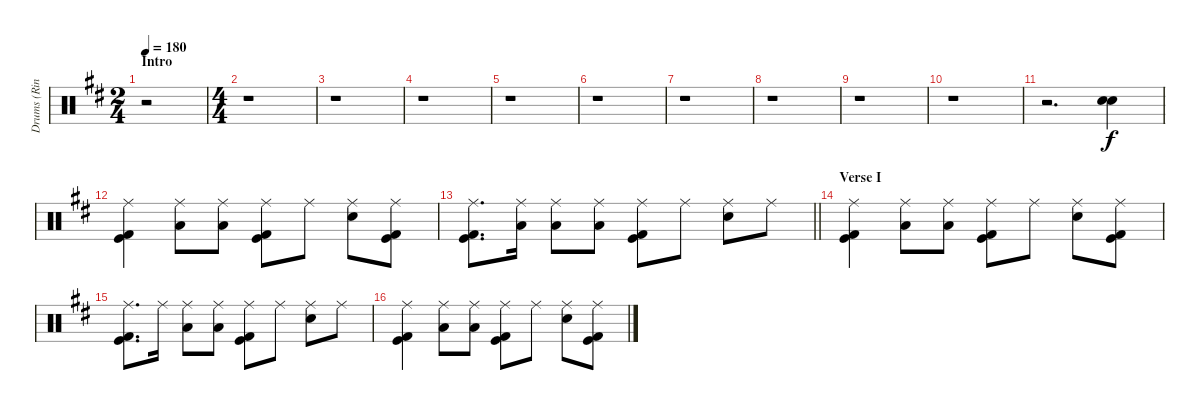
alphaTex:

\track ("Drums (Ringo)" "Drums (Rin") {instrument percussion}
\staff {score}
\articulation defaults
\ts (2 4)
\section ("" "Intro")
\tempo 180
\clef neutral
\ks d
r.2{dy f} |
\ts (4 4)
r.1 |
r.1 |
r.1 |
r.1 |
r.1 |
r.1 |
r.1 |
r.1 |
r.1 |
r.2{d} ("Electric Snare (hit)" "Snare (hit) 2").4 |
("Ride (middle)" "Kick (hit) 2" "Kick (hit)").4 ("Ride (middle)" "Low Tom (hit)").8 ("Ride (middle)" "Low Tom (hit)").8 ("Ride (middle)" "Kick (hit) 2" "Kick (hit)").8 "Ride (middle)".8 ("Ride (middle)" "Electric Snare (hit)").8 ("Ride (middle)" "Kick (hit) 2" "Kick (hit)").8 |
\barLineRight lightlight
("Ride (middle)" "Kick (hit) 2" "Kick (hit)").8{d} ("Ride (middle)" "Low Tom (hit)").16 ("Ride (middle)" "Low Tom (hit)").8 ("Ride (middle)" "Low Tom (hit)").8 ("Ride (middle)" "Kick (hit) 2" "Kick (hit)").8 "Ride (middle)".8 ("Ride (middle)" "Electric Snare (hit)").8 "Ride (middle)".8 |
\section ("" "Verse I")
("Ride (middle)" "Kick (hit) 2" "Kick (hit)").4 ("Ride (middle)" "Low Tom (hit)").8 ("Ride (middle)" "Low Tom (hit)").8 ("Ride (middle)" "Kick (hit) 2" "Kick (hit)").8 "Ride (middle)".8 ("Ride (middle)" "Electric Snare (hit)").8 ("Ride (middle)" "Kick (hit) 2" "Kick (hit)").8 |
("Ride (middle)" "Kick (hit) 2" "Kick (hit)").8{d} "Ride (middle)".16 ("Ride (middle)" "Low Tom (hit)").8 ("Ride (middle)" "Low Tom (hit)").8 ("Ride (middle)" "Kick (hit) 2" "Kick (hit)").8 "Ride (middle)".8 ("Ride (middle)" "Electric Snare (hit)").8 "Ride (middle)".8 |
("Ride (middle)" "Kick (hit) 2" "Kick (hit)").4 ("Ride (middle)" "Low Tom (hit)").8 ("Ride (middle)" "Low Tom (hit)").8 ("Ride (middle)" "Kick (hit) 2" "Kick (hit)").8 "Ride (middle)".8 ("Ride (middle)" "Electric Snare (hit)").8 ("Ride (middle)" "Kick (hit) 2" "Kick (hit)").8
